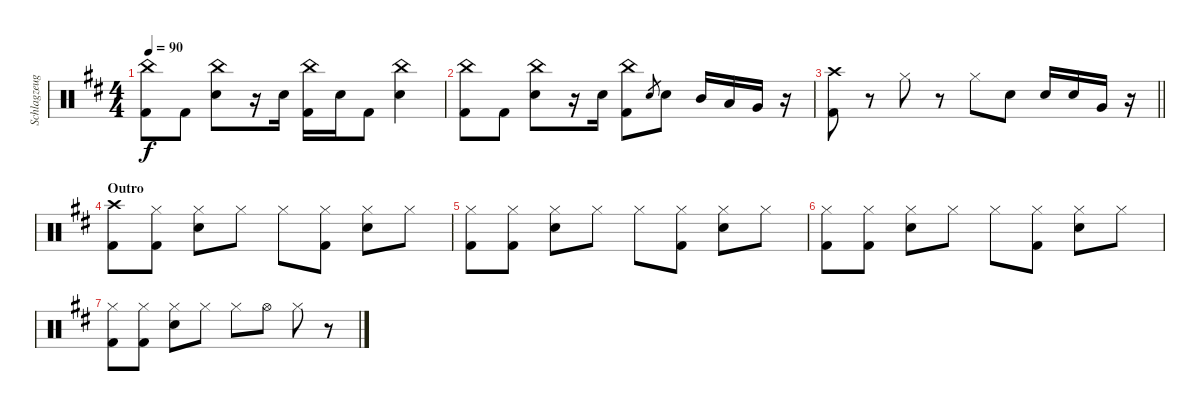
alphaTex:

\track ("Schlagzeug" "Schlagzeug") {instrument percussion}
\staff {score}
\articulation defaults
\ts (4 4)
\tempo 90
\clef neutral
\ks d
("China (hit)" "Kick (hit) 2").8{dy f} "Kick (hit) 2".8 ("China (hit)" "Electric Snare (hit)").8 r.16 "Electric Snare (hit)".16 ("China (hit)" "Kick (hit) 2").16 "Electric Snare (hit)".16 "Kick (hit) 2".8 ("China (hit)" "Electric Snare (hit)").4 |
("China (hit)" "Kick (hit) 2").8 "Kick (hit) 2".8 ("China (hit)" "Electric Snare (hit)").8 r.16 "Electric Snare (hit)".16 ("China (hit)" "Kick (hit) 2").8 "Electric Snare (hit)".8{gr} "Electric Snare (hit)".8 "Mid Tom (hit)".16 "Low Tom (hit)".16 "Very Low Tom (hit)".16 r.16 |
\barLineRight lightlight
("Crash high (hit)" "Kick (hit) 2").8 r.8 "Hi-Hat (closed)".8 r.8 "Hi-Hat (closed)".8 "Electric Snare (hit)".8 "Electric Snare (hit)".16 "Electric Snare (hit)".16 "Very Low Tom (hit)".16 r.16 |
\section ("" "Outro")
("Crash high (hit)" "Kick (hit) 2").8 ("Hi-Hat (closed)" "Kick (hit) 2").8 ("Hi-Hat (closed)" "Electric Snare (hit)").8 "Hi-Hat (closed)".8 "Hi-Hat (closed)".8 ("Hi-Hat (closed)" "Kick (hit) 2").8 ("Hi-Hat (closed)" "Electric Snare (hit)").8 "Hi-Hat (closed)".8 |
("Hi-Hat (closed)" "Kick (hit) 2").8 ("Hi-Hat (closed)" "Kick (hit) 2").8 ("Hi-Hat (closed)" "Electric Snare (hit)").8 "Hi-Hat (closed)".8 "Hi-Hat (closed)".8 ("Hi-Hat (closed)" "Kick (hit) 2").8 ("Hi-Hat (closed)" "Electric Snare (hit)").8 "Hi-Hat (closed)".8 |
("Hi-Hat (closed)" "Kick (hit) 2").8 ("Hi-Hat (closed)" "Kick (hit) 2").8 ("Hi-Hat (closed)" "Electric Snare (hit)").8 "Hi-Hat (closed)".8 "Hi-Hat (closed)".8 ("Hi-Hat (closed)" "Kick (hit) 2").8 ("Hi-Hat (closed)" "Electric Snare (hit)").8 "Hi-Hat (closed)".8 |
("Hi-Hat (closed)" "Kick (hit) 2").8 ("Hi-Hat (closed)" "Kick (hit) 2").8 ("Hi-Hat (closed)" "Electric Snare (hit)").8 "Hi-Hat (closed)".8 "Hi-Hat (closed)".8 "Hi-Hat (open)".8 "Hi-Hat (closed)".8 r.8
